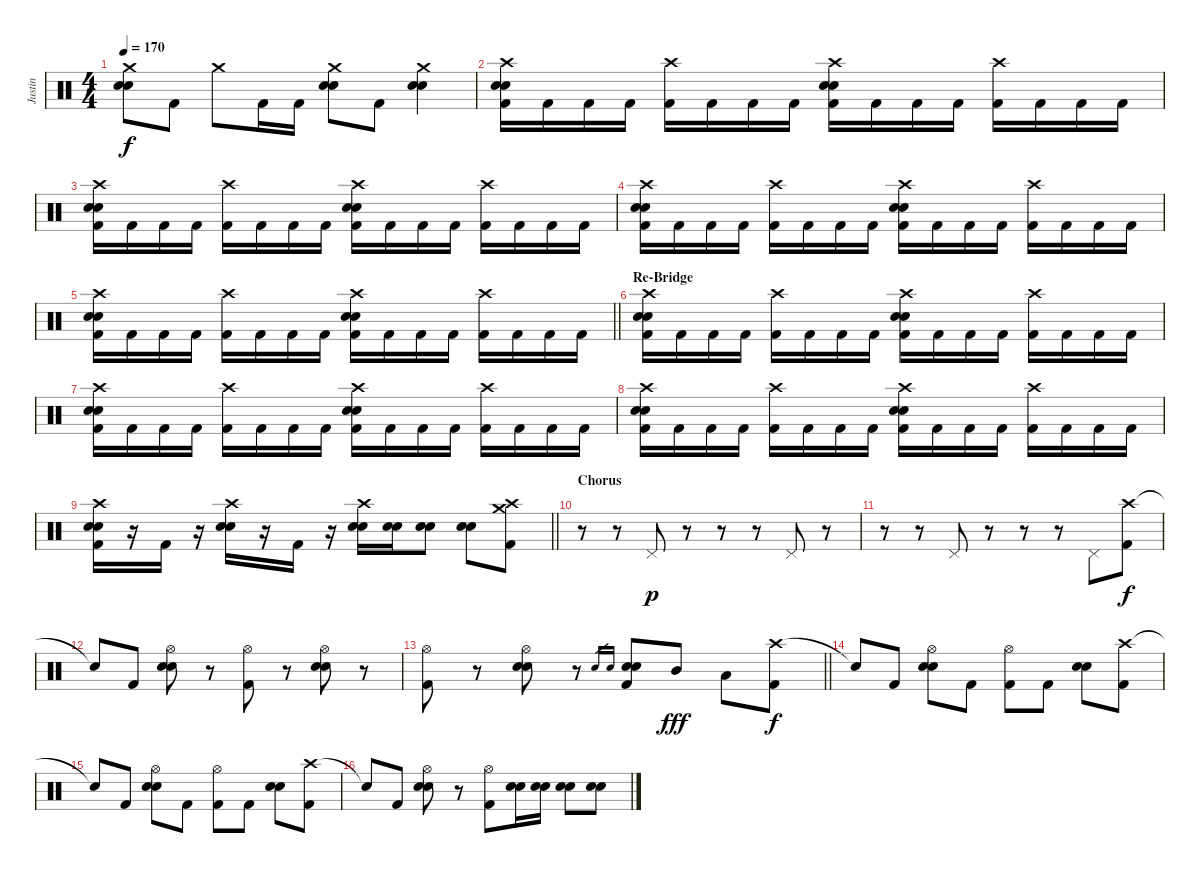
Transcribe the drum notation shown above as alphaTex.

\track ("Justin" "Justin") {instrument percussion}
\staff {score}
\articulation defaults
\ts (4 4)
\tempo 170
\clef neutral
\ks c
("Crash medium (hit)" "Electric Snare (hit)" "Snare (hit) 2").8{dy f} "Kick (hit) 2".8 "Crash medium (hit)".8 "Kick (hit) 2".16 "Kick (hit) 2".16 ("Crash medium (hit)" "Electric Snare (hit)" "Snare (hit) 2").8 "Kick (hit) 2".8 ("Crash medium (hit)" "Electric Snare (hit)" "Snare (hit) 2").4 |
("Crash high (hit)" "Electric Snare (hit)" "Snare (hit) 2" "Kick (hit) 2").16 "Kick (hit) 2".16 "Kick (hit) 2".16 "Kick (hit) 2".16 ("Crash high (hit)" "Kick (hit) 2").16 "Kick (hit) 2".16 "Kick (hit) 2".16 "Kick (hit) 2".16 ("Crash high (hit)" "Electric Snare (hit)" "Snare (hit) 2" "Kick (hit) 2").16 "Kick (hit) 2".16 "Kick (hit) 2".16 "Kick (hit) 2".16 ("Crash high (hit)" "Kick (hit) 2").16 "Kick (hit) 2".16 "Kick (hit) 2".16 "Kick (hit) 2".16 |
("Crash high (hit)" "Electric Snare (hit)" "Snare (hit) 2" "Kick (hit) 2").16 "Kick (hit) 2".16 "Kick (hit) 2".16 "Kick (hit) 2".16 ("Crash high (hit)" "Kick (hit) 2").16 "Kick (hit) 2".16 "Kick (hit) 2".16 "Kick (hit) 2".16 ("Crash high (hit)" "Electric Snare (hit)" "Snare (hit) 2" "Kick (hit) 2").16 "Kick (hit) 2".16 "Kick (hit) 2".16 "Kick (hit) 2".16 ("Crash high (hit)" "Kick (hit) 2").16 "Kick (hit) 2".16 "Kick (hit) 2".16 "Kick (hit) 2".16 |
("Crash high (hit)" "Electric Snare (hit)" "Snare (hit) 2" "Kick (hit) 2").16 "Kick (hit) 2".16 "Kick (hit) 2".16 "Kick (hit) 2".16 ("Crash high (hit)" "Kick (hit) 2").16 "Kick (hit) 2".16 "Kick (hit) 2".16 "Kick (hit) 2".16 ("Crash high (hit)" "Electric Snare (hit)" "Snare (hit) 2" "Kick (hit) 2").16 "Kick (hit) 2".16 "Kick (hit) 2".16 "Kick (hit) 2".16 ("Crash high (hit)" "Kick (hit) 2").16 "Kick (hit) 2".16 "Kick (hit) 2".16 "Kick (hit) 2".16 |
\barLineRight lightlight
("Crash high (hit)" "Electric Snare (hit)" "Snare (hit) 2" "Kick (hit) 2").16 "Kick (hit) 2".16 "Kick (hit) 2".16 "Kick (hit) 2".16 ("Crash high (hit)" "Kick (hit) 2").16 "Kick (hit) 2".16 "Kick (hit) 2".16 "Kick (hit) 2".16 ("Crash high (hit)" "Electric Snare (hit)" "Snare (hit) 2" "Kick (hit) 2").16 "Kick (hit) 2".16 "Kick (hit) 2".16 "Kick (hit) 2".16 ("Crash high (hit)" "Kick (hit) 2").16 "Kick (hit) 2".16 "Kick (hit) 2".16 "Kick (hit) 2".16 |
\section ("" "Re-Bridge")
("Crash high (hit)" "Electric Snare (hit)" "Snare (hit) 2" "Kick (hit) 2").16 "Kick (hit) 2".16 "Kick (hit) 2".16 "Kick (hit) 2".16 ("Crash high (hit)" "Kick (hit) 2").16 "Kick (hit) 2".16 "Kick (hit) 2".16 "Kick (hit) 2".16 ("Crash high (hit)" "Electric Snare (hit)" "Snare (hit) 2" "Kick (hit) 2").16 "Kick (hit) 2".16 "Kick (hit) 2".16 "Kick (hit) 2".16 ("Crash high (hit)" "Kick (hit) 2").16 "Kick (hit) 2".16 "Kick (hit) 2".16 "Kick (hit) 2".16 |
("Crash high (hit)" "Electric Snare (hit)" "Snare (hit) 2" "Kick (hit) 2").16 "Kick (hit) 2".16 "Kick (hit) 2".16 "Kick (hit) 2".16 ("Crash high (hit)" "Kick (hit) 2").16 "Kick (hit) 2".16 "Kick (hit) 2".16 "Kick (hit) 2".16 ("Crash high (hit)" "Electric Snare (hit)" "Snare (hit) 2" "Kick (hit) 2").16 "Kick (hit) 2".16 "Kick (hit) 2".16 "Kick (hit) 2".16 ("Crash high (hit)" "Kick (hit) 2").16 "Kick (hit) 2".16 "Kick (hit) 2".16 "Kick (hit) 2".16 |
("Crash high (hit)" "Electric Snare (hit)" "Snare (hit) 2" "Kick (hit) 2").16 "Kick (hit) 2".16 "Kick (hit) 2".16 "Kick (hit) 2".16 ("Crash high (hit)" "Kick (hit) 2").16 "Kick (hit) 2".16 "Kick (hit) 2".16 "Kick (hit) 2".16 ("Crash high (hit)" "Electric Snare (hit)" "Snare (hit) 2" "Kick (hit) 2").16 "Kick (hit) 2".16 "Kick (hit) 2".16 "Kick (hit) 2".16 ("Crash high (hit)" "Kick (hit) 2").16 "Kick (hit) 2".16 "Kick (hit) 2".16 "Kick (hit) 2".16 |
\barLineRight lightlight
("Crash high (hit)" "Electric Snare (hit)" "Snare (hit) 2" "Kick (hit) 2").16 r.16 "Kick (hit) 2".16 r.16 ("Crash high (hit)" "Electric Snare (hit)" "Snare (hit) 2").16 r.16 "Kick (hit) 2".16 r.16 ("Crash high (hit)" "Electric Snare (hit)" "Snare (hit) 2").16 ("Electric Snare (hit)" "Snare (hit) 2").16 ("Electric Snare (hit)" "Snare (hit) 2").8 ("Electric Snare (hit)" "Snare (hit) 2").8 ("Crash medium (hit)" "Crash high (hit)" "Kick (hit) 2").8 |
\section ("" "Chorus")
r.8 r.8 "Pedal Hi-Hat (hit)".8{dy p} r.8 r.8 r.8 "Pedal Hi-Hat (hit)".8 r.8 |
r.8 r.8 "Pedal Hi-Hat (hit)".8 r.8 r.8 r.8 "Pedal Hi-Hat (hit)".8 ("Crash high (hit)" "Kick (hit) 2").8{dy f} |
"Snare (hit)"{t}.8 "Kick (hit) 2".8 ("Hi-Hat (open)" "Electric Snare (hit)" "Snare (hit) 2").8 r.8 ("Hi-Hat (open)" "Kick (hit) 2").8 r.8 ("Hi-Hat (open)" "Electric Snare (hit)" "Snare (hit) 2").8 r.8 |
\barLineRight lightlight
("Hi-Hat (open)" "Kick (hit) 2").8 r.8 ("Hi-Hat (open)" "Electric Snare (hit)" "Snare (hit) 2").8 r.8 "Electric Snare (hit)".16{gr} "Snare (hit) 2".16{gr} ("Electric Snare (hit)" "Snare (hit) 2" "Kick (hit) 2").8 "Mid Tom (hit)".8{dy fff} "Low Tom (hit)".8 ("Crash high (hit)" "Kick (hit) 2").8{dy f} |
"Snare (hit)"{t}.8 "Kick (hit) 2".8 ("Hi-Hat (open)" "Electric Snare (hit)" "Snare (hit) 2").8 "Kick (hit) 2".8 ("Hi-Hat (open)" "Kick (hit) 2").8 "Kick (hit) 2".8 ("Electric Snare (hit)" "Snare (hit) 2").8 ("Crash high (hit)" "Kick (hit) 2").8 |
"Snare (hit)"{t}.8 "Kick (hit) 2".8 ("Hi-Hat (open)" "Electric Snare (hit)" "Snare (hit) 2").8 "Kick (hit) 2".8 ("Hi-Hat (open)" "Kick (hit) 2").8 "Kick (hit) 2".8 ("Electric Snare (hit)" "Snare (hit) 2").8 ("Crash high (hit)" "Kick (hit) 2").8 |
"Snare (hit)"{t}.8 "Kick (hit) 2".8 ("Hi-Hat (open)" "Electric Snare (hit)" "Snare (hit) 2").8 r.8 ("Hi-Hat (open)" "Kick (hit) 2").8 ("Electric Snare (hit)" "Snare (hit) 2").16 ("Electric Snare (hit)" "Snare (hit) 2").16 ("Electric Snare (hit)" "Snare (hit) 2").8 ("Electric Snare (hit)" "Snare (hit) 2").8
